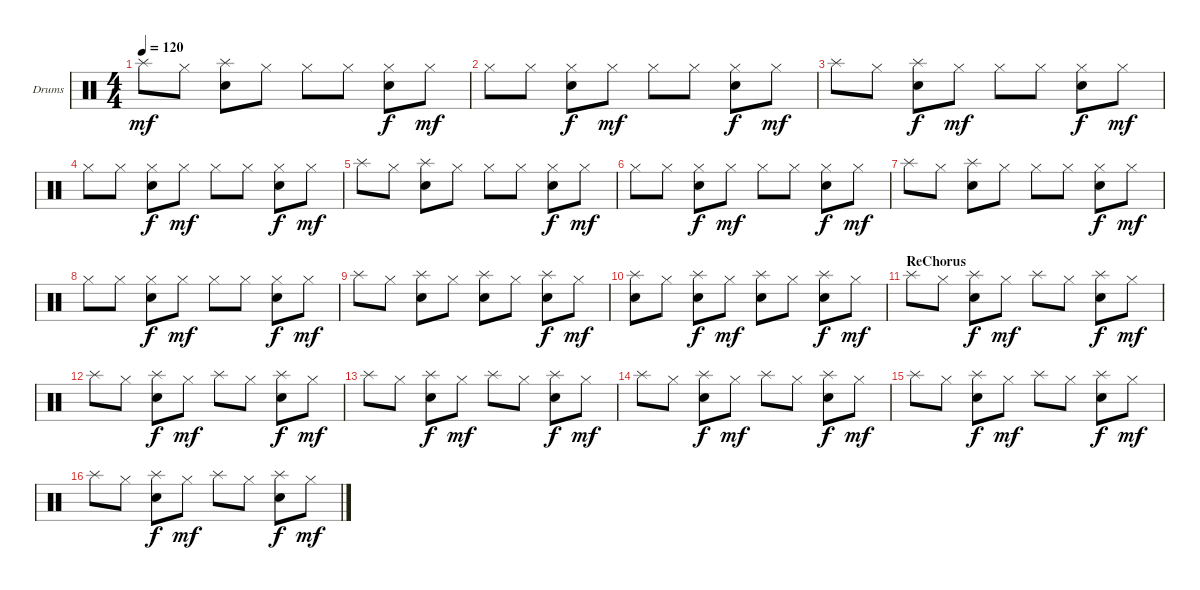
\bracketExtendMode groupsimilarinstruments
\firstSystemTrackNameOrientation horizontal
\otherSystemsTrackNameOrientation horizontal
\track ("Drumkit" "Drums") {instrument percussion}
\staff {score}
\articulation defaults
\ts (4 4)
\tempo 120
\clef neutral
\ks c "Splash (hit)".8{dy mf} "Hi-Hat (closed)".8
("Snare (hit) 2" "Splash (hit)").8 "Hi-Hat (closed)".8 "Hi-Hat (closed)".8 "Hi-Hat (closed)".8 ("Hi-Hat (closed)" "Snare (hit) 2").8{dy f} "Hi-Hat (closed)".8{dy mf} |
"Hi-Hat (closed)".8 "Hi-Hat (closed)".8 ("Hi-Hat (closed)" "Snare (hit) 2").8{dy f} "Hi-Hat (closed)".8{dy mf} "Hi-Hat (closed)".8 "Hi-Hat (closed)".8 ("Hi-Hat (closed)" "Snare (hit) 2").8{dy f} "Hi-Hat (closed)".8{dy mf} |
"Splash (hit)".8 "Hi-Hat (closed)".8 ("Snare (hit) 2" "Splash (hit)").8{dy f} "Hi-Hat (closed)".8{dy mf} "Hi-Hat (closed)".8 "Hi-Hat (closed)".8 ("Hi-Hat (closed)" "Snare (hit) 2").8{dy f} "Hi-Hat (closed)".8{dy mf} |
"Hi-Hat (closed)".8 "Hi-Hat (closed)".8 ("Hi-Hat (closed)" "Snare (hit) 2").8{dy f} "Hi-Hat (closed)".8{dy mf} "Hi-Hat (closed)".8 "Hi-Hat (closed)".8 ("Hi-Hat (closed)" "Snare (hit) 2").8{dy f} "Hi-Hat (closed)".8{dy mf} |
"Splash (hit)".8 "Hi-Hat (closed)".8 ("Snare (hit) 2" "Splash (hit)").8 "Hi-Hat (closed)".8 "Hi-Hat (closed)".8 "Hi-Hat (closed)".8 ("Hi-Hat (closed)" "Snare (hit) 2").8{dy f} "Hi-Hat (closed)".8{dy mf} |
"Hi-Hat (closed)".8 "Hi-Hat (closed)".8 ("Hi-Hat (closed)" "Snare (hit) 2").8{dy f} "Hi-Hat (closed)".8{dy mf} "Hi-Hat (closed)".8 "Hi-Hat (closed)".8 ("Hi-Hat (closed)" "Snare (hit) 2").8{dy f} "Hi-Hat (closed)".8{dy mf} |
"Splash (hit)".8 "Hi-Hat (closed)".8 ("Snare (hit) 2" "Splash (hit)").8 "Hi-Hat (closed)".8 "Hi-Hat (closed)".8 "Hi-Hat (closed)".8 ("Hi-Hat (closed)" "Snare (hit) 2").8{dy f} "Hi-Hat (closed)".8{dy mf} |
"Hi-Hat (closed)".8 "Hi-Hat (closed)".8 ("Hi-Hat (closed)" "Snare (hit) 2").8{dy f} "Hi-Hat (closed)".8{dy mf} "Hi-Hat (closed)".8 "Hi-Hat (closed)".8 ("Hi-Hat (closed)" "Snare (hit) 2").8{dy f} "Hi-Hat (closed)".8{dy mf} |
"Splash (hit)".8 "Hi-Hat (closed)".8 ("Snare (hit) 2" "Splash (hit)").8 "Hi-Hat (closed)".8 ("Snare (hit) 2" "Splash (hit)").8 "Hi-Hat (closed)".8 ("Snare (hit) 2" "Splash (hit)").8{dy f} "Hi-Hat (closed)".8{dy mf} |
("Snare (hit) 2" "Splash (hit)").8 "Hi-Hat (closed)".8 ("Snare (hit) 2" "Splash (hit)").8{dy f} "Hi-Hat (closed)".8{dy mf} ("Snare (hit) 2" "Splash (hit)").8 "Hi-Hat (closed)".8 ("Snare (hit) 2" "Splash (hit)").8{dy f} "Hi-Hat (closed)".8{dy mf} |
\section ("" "ReChorus")
"Splash (hit)".8 "Hi-Hat (closed)".8 ("Snare (hit) 2" "Splash (hit)").8{dy f} "Hi-Hat (closed)".8{dy mf} "Splash (hit)".8 "Hi-Hat (closed)".8 ("Snare (hit) 2" "Splash (hit)").8{dy f} "Hi-Hat (closed)".8{dy mf} |
"Splash (hit)".8 "Hi-Hat (closed)".8 ("Snare (hit) 2" "Splash (hit)").8{dy f} "Hi-Hat (closed)".8{dy mf} "Splash (hit)".8 "Hi-Hat (closed)".8 ("Snare (hit) 2" "Splash (hit)").8{dy f} "Hi-Hat (closed)".8{dy mf} |
"Splash (hit)".8 "Hi-Hat (closed)".8 ("Snare (hit) 2" "Splash (hit)").8{dy f} "Hi-Hat (closed)".8{dy mf} "Splash (hit)".8 "Hi-Hat (closed)".8 ("Snare (hit) 2" "Splash (hit)").8{dy f} "Hi-Hat (closed)".8{dy mf} |
"Splash (hit)".8 "Hi-Hat (closed)".8 ("Snare (hit) 2" "Splash (hit)").8{dy f} "Hi-Hat (closed)".8{dy mf} "Splash (hit)".8 "Hi-Hat (closed)".8 ("Snare (hit) 2" "Splash (hit)").8{dy f} "Hi-Hat (closed)".8{dy mf} |
"Splash (hit)".8 "Hi-Hat (closed)".8 ("Snare (hit) 2" "Splash (hit)").8{dy f} "Hi-Hat (closed)".8{dy mf} "Splash (hit)".8 "Hi-Hat (closed)".8 ("Snare (hit) 2" "Splash (hit)").8{dy f} "Hi-Hat (closed)".8{dy mf} |
"Splash (hit)".8 "Hi-Hat (closed)".8 ("Snare (hit) 2" "Splash (hit)").8{dy f} "Hi-Hat (closed)".8{dy mf} "Splash (hit)".8 "Hi-Hat (closed)".8 ("Snare (hit) 2" "Splash (hit)").8{dy f} "Hi-Hat (closed)".8{dy mf}
